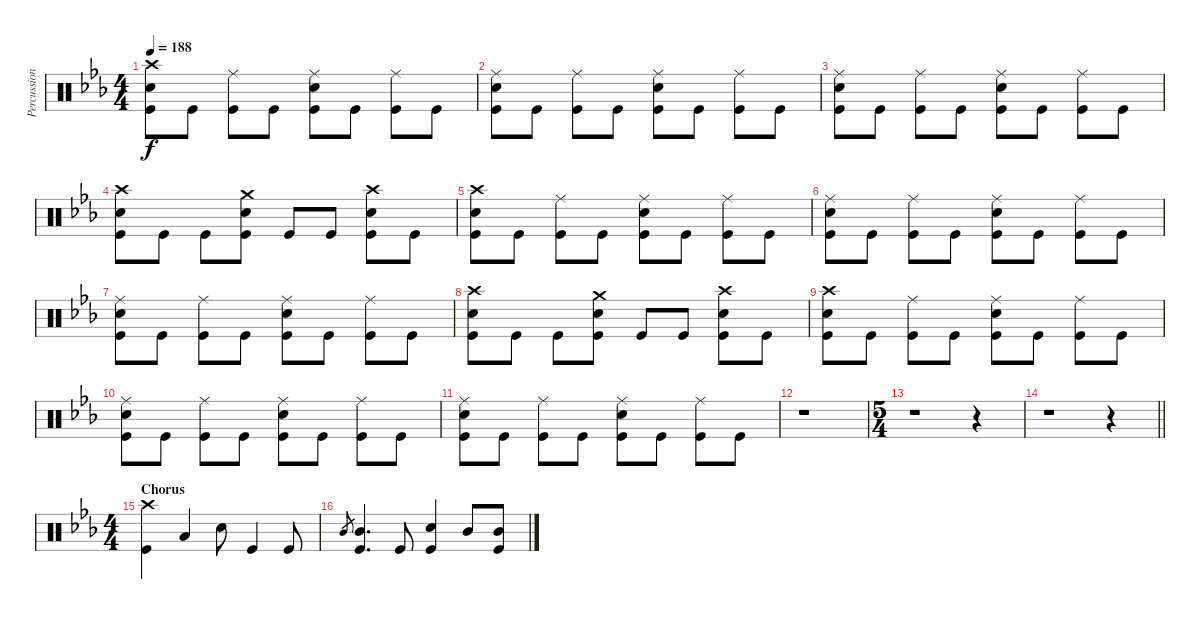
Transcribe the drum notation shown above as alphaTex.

\track ("Percussion" "Percussion") {instrument percussion}
\staff {score}
\articulation defaults
\ts (4 4)
\tempo 188
\clef neutral
\ks eb
("Crash high (hit)" "Electric Snare (hit)" "Kick (hit)").8{dy f} "Kick (hit)".8 ("Ride (middle)" "Kick (hit)").8 "Kick (hit)".8 ("Ride (middle)" "Electric Snare (hit)" "Kick (hit)").8 "Kick (hit)".8 ("Ride (middle)" "Kick (hit)").8 "Kick (hit)".8 |
("Ride (middle)" "Electric Snare (hit)" "Kick (hit)").8 "Kick (hit)".8 ("Ride (middle)" "Kick (hit)").8 "Kick (hit)".8 ("Ride (middle)" "Electric Snare (hit)" "Kick (hit)").8 "Kick (hit)".8 ("Ride (middle)" "Kick (hit)").8 "Kick (hit)".8 |
("Ride (middle)" "Electric Snare (hit)" "Kick (hit)").8 "Kick (hit)".8 ("Ride (middle)" "Kick (hit)").8 "Kick (hit)".8 ("Ride (middle)" "Electric Snare (hit)" "Kick (hit)").8 "Kick (hit)".8 ("Ride (middle)" "Kick (hit)").8 "Kick (hit)".8 |
("Crash high (hit)" "Electric Snare (hit)" "Kick (hit)").8 "Kick (hit)".8 "Kick (hit)".8 ("Crash medium (hit)" "Electric Snare (hit)" "Kick (hit)").8 "Kick (hit)".8 "Kick (hit)".8 ("Crash high (hit)" "Electric Snare (hit)" "Kick (hit)").8 "Kick (hit)".8 |
("Crash high (hit)" "Electric Snare (hit)" "Kick (hit)").8 "Kick (hit)".8 ("Ride (middle)" "Kick (hit)").8 "Kick (hit)".8 ("Ride (middle)" "Electric Snare (hit)" "Kick (hit)").8 "Kick (hit)".8 ("Ride (middle)" "Kick (hit)").8 "Kick (hit)".8 |
("Ride (middle)" "Electric Snare (hit)" "Kick (hit)").8 "Kick (hit)".8 ("Ride (middle)" "Kick (hit)").8 "Kick (hit)".8 ("Ride (middle)" "Electric Snare (hit)" "Kick (hit)").8 "Kick (hit)".8 ("Ride (middle)" "Kick (hit)").8 "Kick (hit)".8 |
("Ride (middle)" "Electric Snare (hit)" "Kick (hit)").8 "Kick (hit)".8 ("Ride (middle)" "Kick (hit)").8 "Kick (hit)".8 ("Ride (middle)" "Electric Snare (hit)" "Kick (hit)").8 "Kick (hit)".8 ("Ride (middle)" "Kick (hit)").8 "Kick (hit)".8 |
("Crash high (hit)" "Electric Snare (hit)" "Kick (hit)").8 "Kick (hit)".8 "Kick (hit)".8 ("Crash medium (hit)" "Electric Snare (hit)" "Kick (hit)").8 "Kick (hit)".8 "Kick (hit)".8 ("Crash high (hit)" "Electric Snare (hit)" "Kick (hit)").8 "Kick (hit)".8 |
("Crash high (hit)" "Electric Snare (hit)" "Kick (hit)").8 "Kick (hit)".8 ("Ride (middle)" "Kick (hit)").8 "Kick (hit)".8 ("Ride (middle)" "Electric Snare (hit)" "Kick (hit)").8 "Kick (hit)".8 ("Ride (middle)" "Kick (hit)").8 "Kick (hit)".8 |
("Ride (middle)" "Electric Snare (hit)" "Kick (hit)").8 "Kick (hit)".8 ("Ride (middle)" "Kick (hit)").8 "Kick (hit)".8 ("Ride (middle)" "Electric Snare (hit)" "Kick (hit)").8 "Kick (hit)".8 ("Ride (middle)" "Kick (hit)").8 "Kick (hit)".8 |
("Ride (middle)" "Electric Snare (hit)" "Kick (hit)").8 "Kick (hit)".8 ("Ride (middle)" "Kick (hit)").8 "Kick (hit)".8 ("Ride (middle)" "Electric Snare (hit)" "Kick (hit)").8 "Kick (hit)".8 ("Ride (middle)" "Kick (hit)").8 "Kick (hit)".8 |
r.1 |
\ts (5 4)
r.1 r.4 |
\barLineRight lightlight
r.1 r.4 |
\ts (4 4)
\section ("" "Chorus")
("Crash high (hit)" "Kick (hit)").4{volume 16} "Low Tom (hit)".4 "Electric Snare (hit)".8 "Kick (hit)".4 "Kick (hit)".8 |
"Mid Tom (hit)".8{gr} ("Mid Tom (hit)" "Kick (hit)").4{d} "Kick (hit)".8 ("Electric Snare (hit)" "Kick (hit)").4 "Mid Tom (hit)".8 ("Mid Tom (hit)" "Kick (hit)").8
